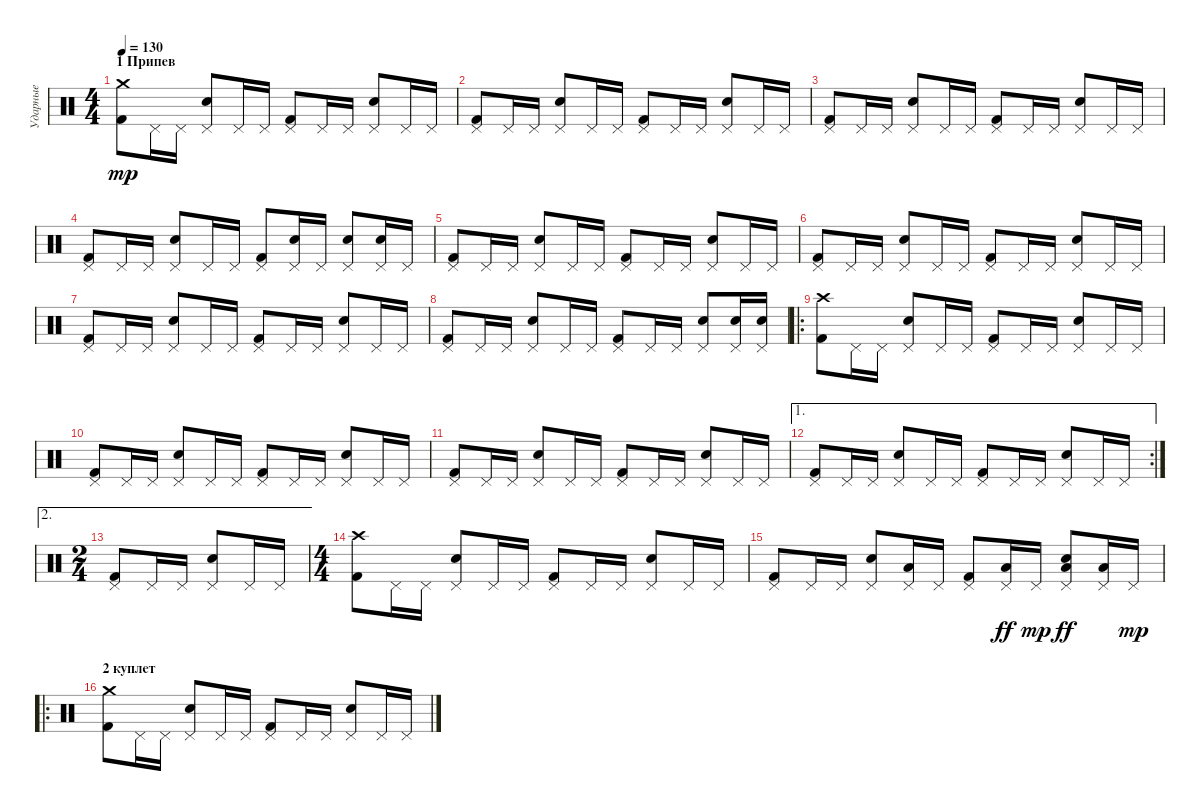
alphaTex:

\track ("Ударные" "Ударные") {instrument percussion}
\staff {score}
\articulation defaults
\ts (4 4)
\section ("" "1 Припев")
\tempo 130
\clef neutral
\ks c
("Crash medium (hit)" "Kick (hit) 2").8{dy mp} "Pedal Hi-Hat (hit)".16 "Pedal Hi-Hat (hit)".16 ("Pedal Hi-Hat (hit)" "Snare (hit) 2").8 "Pedal Hi-Hat (hit)".16 "Pedal Hi-Hat (hit)".16 ("Pedal Hi-Hat (hit)" "Kick (hit) 2").8 "Pedal Hi-Hat (hit)".16 "Pedal Hi-Hat (hit)".16 ("Pedal Hi-Hat (hit)" "Snare (hit) 2").8 "Pedal Hi-Hat (hit)".16 "Pedal Hi-Hat (hit)".16 |
("Pedal Hi-Hat (hit)" "Kick (hit) 2").8 "Pedal Hi-Hat (hit)".16 "Pedal Hi-Hat (hit)".16 ("Pedal Hi-Hat (hit)" "Snare (hit) 2").8 "Pedal Hi-Hat (hit)".16 "Pedal Hi-Hat (hit)".16 ("Pedal Hi-Hat (hit)" "Kick (hit) 2").8 "Pedal Hi-Hat (hit)".16 "Pedal Hi-Hat (hit)".16 ("Pedal Hi-Hat (hit)" "Snare (hit) 2").8 "Pedal Hi-Hat (hit)".16 "Pedal Hi-Hat (hit)".16 |
("Pedal Hi-Hat (hit)" "Kick (hit) 2").8 "Pedal Hi-Hat (hit)".16 "Pedal Hi-Hat (hit)".16 ("Pedal Hi-Hat (hit)" "Snare (hit) 2").8 "Pedal Hi-Hat (hit)".16 "Pedal Hi-Hat (hit)".16 ("Pedal Hi-Hat (hit)" "Kick (hit) 2").8 "Pedal Hi-Hat (hit)".16 "Pedal Hi-Hat (hit)".16 ("Pedal Hi-Hat (hit)" "Snare (hit) 2").8 "Pedal Hi-Hat (hit)".16 "Pedal Hi-Hat (hit)".16 |
("Pedal Hi-Hat (hit)" "Kick (hit) 2").8 "Pedal Hi-Hat (hit)".16 "Pedal Hi-Hat (hit)".16 ("Pedal Hi-Hat (hit)" "Snare (hit) 2").8 "Pedal Hi-Hat (hit)".16 "Pedal Hi-Hat (hit)".16 ("Pedal Hi-Hat (hit)" "Kick (hit) 2").8 ("Pedal Hi-Hat (hit)" "Snare (hit) 2").16 "Pedal Hi-Hat (hit)".16 ("Pedal Hi-Hat (hit)" "Snare (hit) 2").8 ("Pedal Hi-Hat (hit)" "Snare (hit) 2").16 "Pedal Hi-Hat (hit)".16 |
("Pedal Hi-Hat (hit)" "Kick (hit) 2").8 "Pedal Hi-Hat (hit)".16 "Pedal Hi-Hat (hit)".16 ("Pedal Hi-Hat (hit)" "Snare (hit) 2").8 "Pedal Hi-Hat (hit)".16 "Pedal Hi-Hat (hit)".16 ("Pedal Hi-Hat (hit)" "Kick (hit) 2").8 "Pedal Hi-Hat (hit)".16 "Pedal Hi-Hat (hit)".16 ("Pedal Hi-Hat (hit)" "Snare (hit) 2").8 "Pedal Hi-Hat (hit)".16 "Pedal Hi-Hat (hit)".16 |
("Pedal Hi-Hat (hit)" "Kick (hit) 2").8 "Pedal Hi-Hat (hit)".16 "Pedal Hi-Hat (hit)".16 ("Pedal Hi-Hat (hit)" "Snare (hit) 2").8 "Pedal Hi-Hat (hit)".16 "Pedal Hi-Hat (hit)".16 ("Pedal Hi-Hat (hit)" "Kick (hit) 2").8 "Pedal Hi-Hat (hit)".16 "Pedal Hi-Hat (hit)".16 ("Pedal Hi-Hat (hit)" "Snare (hit) 2").8 "Pedal Hi-Hat (hit)".16 "Pedal Hi-Hat (hit)".16 |
("Pedal Hi-Hat (hit)" "Kick (hit) 2").8 "Pedal Hi-Hat (hit)".16 "Pedal Hi-Hat (hit)".16 ("Pedal Hi-Hat (hit)" "Snare (hit) 2").8 "Pedal Hi-Hat (hit)".16 "Pedal Hi-Hat (hit)".16 ("Pedal Hi-Hat (hit)" "Kick (hit) 2").8 "Pedal Hi-Hat (hit)".16 "Pedal Hi-Hat (hit)".16 ("Pedal Hi-Hat (hit)" "Snare (hit) 2").8 "Pedal Hi-Hat (hit)".16 "Pedal Hi-Hat (hit)".16 |
("Pedal Hi-Hat (hit)" "Kick (hit) 2").8 "Pedal Hi-Hat (hit)".16 "Pedal Hi-Hat (hit)".16 ("Pedal Hi-Hat (hit)" "Snare (hit) 2").8 "Pedal Hi-Hat (hit)".16 "Pedal Hi-Hat (hit)".16 ("Pedal Hi-Hat (hit)" "Kick (hit) 2").8 "Pedal Hi-Hat (hit)".16 "Pedal Hi-Hat (hit)".16 ("Pedal Hi-Hat (hit)" "Snare (hit) 2").8 ("Pedal Hi-Hat (hit)" "Snare (hit) 2").16 ("Pedal Hi-Hat (hit)" "Snare (hit) 2").16 |
\ro
("Crash high (hit)" "Kick (hit) 2").8 "Pedal Hi-Hat (hit)".16 "Pedal Hi-Hat (hit)".16 ("Pedal Hi-Hat (hit)" "Snare (hit) 2").8 "Pedal Hi-Hat (hit)".16 "Pedal Hi-Hat (hit)".16 ("Pedal Hi-Hat (hit)" "Kick (hit) 2").8 "Pedal Hi-Hat (hit)".16 "Pedal Hi-Hat (hit)".16 ("Pedal Hi-Hat (hit)" "Snare (hit) 2").8 "Pedal Hi-Hat (hit)".16 "Pedal Hi-Hat (hit)".16 |
("Pedal Hi-Hat (hit)" "Kick (hit) 2").8 "Pedal Hi-Hat (hit)".16 "Pedal Hi-Hat (hit)".16 ("Pedal Hi-Hat (hit)" "Snare (hit) 2").8 "Pedal Hi-Hat (hit)".16 "Pedal Hi-Hat (hit)".16 ("Pedal Hi-Hat (hit)" "Kick (hit) 2").8 "Pedal Hi-Hat (hit)".16 "Pedal Hi-Hat (hit)".16 ("Pedal Hi-Hat (hit)" "Snare (hit) 2").8 "Pedal Hi-Hat (hit)".16 "Pedal Hi-Hat (hit)".16 |
("Pedal Hi-Hat (hit)" "Kick (hit) 2").8 "Pedal Hi-Hat (hit)".16 "Pedal Hi-Hat (hit)".16 ("Pedal Hi-Hat (hit)" "Snare (hit) 2").8 "Pedal Hi-Hat (hit)".16 "Pedal Hi-Hat (hit)".16 ("Pedal Hi-Hat (hit)" "Kick (hit) 2").8 "Pedal Hi-Hat (hit)".16 "Pedal Hi-Hat (hit)".16 ("Pedal Hi-Hat (hit)" "Snare (hit) 2").8 "Pedal Hi-Hat (hit)".16 "Pedal Hi-Hat (hit)".16 |
\ae 1
\rc 2
("Pedal Hi-Hat (hit)" "Kick (hit) 2").8 "Pedal Hi-Hat (hit)".16 "Pedal Hi-Hat (hit)".16 ("Pedal Hi-Hat (hit)" "Snare (hit) 2").8 "Pedal Hi-Hat (hit)".16 "Pedal Hi-Hat (hit)".16 ("Pedal Hi-Hat (hit)" "Kick (hit) 2").8 "Pedal Hi-Hat (hit)".16 "Pedal Hi-Hat (hit)".16 ("Pedal Hi-Hat (hit)" "Snare (hit) 2").8 "Pedal Hi-Hat (hit)".16 "Pedal Hi-Hat (hit)".16 |
\ae 2
\ts (2 4)
("Pedal Hi-Hat (hit)" "Kick (hit) 2").8 "Pedal Hi-Hat (hit)".16 "Pedal Hi-Hat (hit)".16 ("Pedal Hi-Hat (hit)" "Snare (hit) 2").8 "Pedal Hi-Hat (hit)".16 "Pedal Hi-Hat (hit)".16 |
\ts (4 4)
("Crash high (hit)" "Kick (hit) 2").8 "Pedal Hi-Hat (hit)".16 "Pedal Hi-Hat (hit)".16 ("Pedal Hi-Hat (hit)" "Snare (hit) 2").8 "Pedal Hi-Hat (hit)".16 "Pedal Hi-Hat (hit)".16 ("Pedal Hi-Hat (hit)" "Kick (hit) 2").8 "Pedal Hi-Hat (hit)".16 "Pedal Hi-Hat (hit)".16 ("Pedal Hi-Hat (hit)" "Snare (hit) 2").8 "Pedal Hi-Hat (hit)".16 "Pedal Hi-Hat (hit)".16 |
("Pedal Hi-Hat (hit)" "Kick (hit) 2").8 "Pedal Hi-Hat (hit)".16 "Pedal Hi-Hat (hit)".16 ("Pedal Hi-Hat (hit)" "Snare (hit) 2").8 ("Pedal Hi-Hat (hit)" "Low Tom (hit)").16 "Pedal Hi-Hat (hit)".16 ("Pedal Hi-Hat (hit)" "Kick (hit) 2").8 ("Pedal Hi-Hat (hit)" "Low Tom (hit)").16{dy ff} "Pedal Hi-Hat (hit)".16{dy mp} ("Pedal Hi-Hat (hit)" "Snare (hit) 2" "Low Tom (hit)").8{dy ff} ("Pedal Hi-Hat (hit)" "Low Tom (hit)").16 "Pedal Hi-Hat (hit)".16{dy mp} |
\ro
\section ("" "2 куплет")
("Crash medium (hit)" "Kick (hit) 2").8 "Pedal Hi-Hat (hit)".16 "Pedal Hi-Hat (hit)".16 ("Pedal Hi-Hat (hit)" "Snare (hit) 2").8 "Pedal Hi-Hat (hit)".16 "Pedal Hi-Hat (hit)".16 ("Pedal Hi-Hat (hit)" "Kick (hit) 2").8 "Pedal Hi-Hat (hit)".16 "Pedal Hi-Hat (hit)".16 ("Pedal Hi-Hat (hit)" "Snare (hit) 2").8 "Pedal Hi-Hat (hit)".16 "Pedal Hi-Hat (hit)".16
